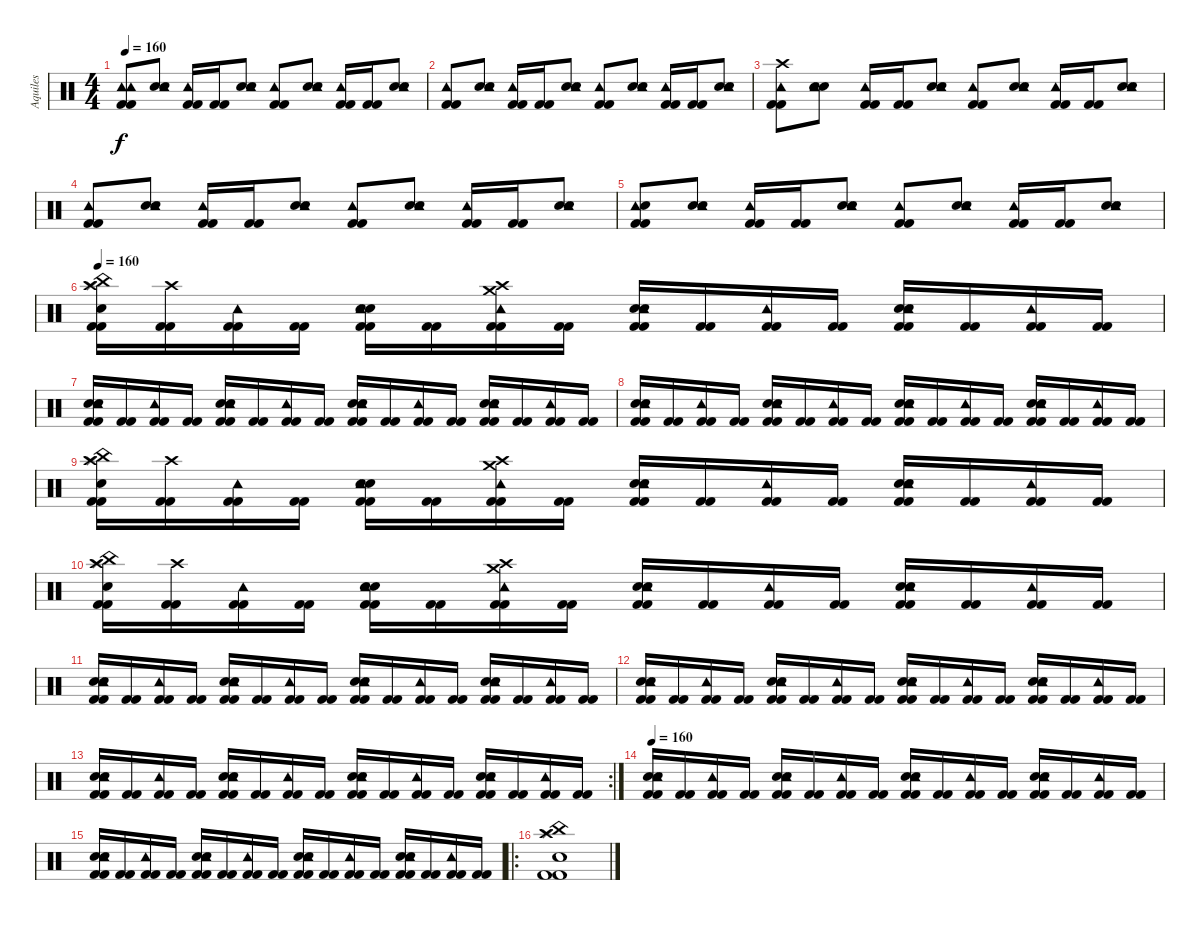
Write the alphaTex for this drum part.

\track ("Aquiles" "Aquiles") {instrument percussion}
\staff {score}
\articulation defaults
\ts (4 4)
\tempo 160
\clef neutral
\ks c
("Kick (hit) 2" "Kick (hit) 2" "Tambourine (hit)" "Tambourine (hit)").8{dy f} ("Electric Snare (hit)" "Electric Snare (hit)" "Tambourine (hit)").8 ("Kick (hit) 2" "Kick (hit) 2" "Tambourine (hit)").16 ("Kick (hit) 2" "Kick (hit) 2").16 ("Electric Snare (hit)" "Electric Snare (hit)" "Tambourine (hit)").8 ("Kick (hit) 2" "Kick (hit) 2" "Tambourine (hit)").8 ("Electric Snare (hit)" "Electric Snare (hit)" "Tambourine (hit)").8 ("Kick (hit) 2" "Kick (hit) 2" "Tambourine (hit)").16 ("Kick (hit) 2" "Kick (hit) 2").16 ("Electric Snare (hit)" "Electric Snare (hit)" "Tambourine (hit)").8 |
("Kick (hit) 2" "Kick (hit) 2" "Tambourine (hit)").8 ("Electric Snare (hit)" "Electric Snare (hit)" "Tambourine (hit)").8 ("Kick (hit) 2" "Kick (hit) 2" "Tambourine (hit)").16 ("Kick (hit) 2" "Kick (hit) 2").16 ("Electric Snare (hit)" "Electric Snare (hit)" "Tambourine (hit)").8 ("Kick (hit) 2" "Kick (hit) 2" "Tambourine (hit)").8 ("Electric Snare (hit)" "Electric Snare (hit)" "Tambourine (hit)").8 ("Kick (hit) 2" "Kick (hit) 2" "Tambourine (hit)").16 ("Kick (hit) 2" "Kick (hit) 2").16 ("Electric Snare (hit)" "Electric Snare (hit)" "Tambourine (hit)").8 |
("Kick (hit) 2" "Kick (hit) 2" "Tambourine (hit)" "Crash high (hit)").8 ("Electric Snare (hit)" "Electric Snare (hit)" "Tambourine (hit)").8 ("Kick (hit) 2" "Kick (hit) 2" "Tambourine (hit)").16 ("Kick (hit) 2" "Kick (hit) 2").16 ("Electric Snare (hit)" "Electric Snare (hit)" "Tambourine (hit)").8 ("Kick (hit) 2" "Kick (hit) 2" "Tambourine (hit)").8 ("Electric Snare (hit)" "Electric Snare (hit)" "Tambourine (hit)").8 ("Kick (hit) 2" "Kick (hit) 2" "Tambourine (hit)").16 ("Kick (hit) 2" "Kick (hit) 2").16 ("Electric Snare (hit)" "Electric Snare (hit)" "Tambourine (hit)").8 |
("Kick (hit) 2" "Kick (hit) 2" "Tambourine (hit)").8 ("Electric Snare (hit)" "Electric Snare (hit)" "Tambourine (hit)").8 ("Kick (hit) 2" "Kick (hit) 2" "Tambourine (hit)").16 ("Kick (hit) 2" "Kick (hit) 2").16 ("Electric Snare (hit)" "Electric Snare (hit)" "Tambourine (hit)").8 ("Kick (hit) 2" "Kick (hit) 2" "Tambourine (hit)").8 ("Electric Snare (hit)" "Electric Snare (hit)" "Tambourine (hit)").8 ("Kick (hit) 2" "Kick (hit) 2" "Tambourine (hit)").16 ("Kick (hit) 2" "Kick (hit) 2").16 ("Electric Snare (hit)" "Electric Snare (hit)" "Tambourine (hit)").8 |
("Kick (hit) 2" "Kick (hit) 2" "Tambourine (hit)" "Snare (hit)").8 ("Electric Snare (hit)" "Electric Snare (hit)" "Tambourine (hit)").8 ("Kick (hit) 2" "Kick (hit) 2" "Tambourine (hit)").16 ("Kick (hit) 2" "Kick (hit) 2").16 ("Electric Snare (hit)" "Electric Snare (hit)" "Tambourine (hit)").8 ("Kick (hit) 2" "Kick (hit) 2" "Tambourine (hit)").8 ("Electric Snare (hit)" "Electric Snare (hit)" "Tambourine (hit)").8 ("Kick (hit) 2" "Kick (hit) 2" "Tambourine (hit)").16 ("Kick (hit) 2" "Kick (hit) 2").16 ("Electric Snare (hit)" "Electric Snare (hit)" "Tambourine (hit)").8 |
\tempo 160
("Kick (hit) 2" "Kick (hit) 2" "Electric Snare (hit)" "Crash high (hit)" "Splash (hit)" "China (hit)").16 ("Kick (hit) 2" "Kick (hit) 2" "Crash high (hit)").16 ("Kick (hit) 2" "Kick (hit) 2" "Tambourine (hit)").16 ("Kick (hit) 2" "Kick (hit) 2").16 ("Kick (hit) 2" "Kick (hit) 2" "Electric Snare (hit)" "Electric Snare (hit)" "Tambourine (hit)").16 ("Kick (hit) 2" "Kick (hit) 2").16 ("Kick (hit) 2" "Kick (hit) 2" "Crash high (hit)" "Tambourine (hit)" "Crash medium (hit)").16 ("Kick (hit) 2" "Kick (hit) 2").16 ("Kick (hit) 2" "Kick (hit) 2" "Electric Snare (hit)" "Electric Snare (hit)" "Tambourine (hit)").16 ("Kick (hit) 2" "Kick (hit) 2").16 ("Kick (hit) 2" "Kick (hit) 2" "Tambourine (hit)").16 ("Kick (hit) 2" "Kick (hit) 2").16 ("Kick (hit) 2" "Kick (hit) 2" "Electric Snare (hit)" "Electric Snare (hit)" "Tambourine (hit)").16 ("Kick (hit) 2" "Kick (hit) 2").16 ("Kick (hit) 2" "Kick (hit) 2" "Tambourine (hit)").16 ("Kick (hit) 2" "Kick (hit) 2").16 |
("Kick (hit) 2" "Kick (hit) 2" "Electric Snare (hit)" "Electric Snare (hit)" "Tambourine (hit)").16 ("Kick (hit) 2" "Kick (hit) 2").16 ("Kick (hit) 2" "Kick (hit) 2" "Tambourine (hit)").16 ("Kick (hit) 2" "Kick (hit) 2").16 ("Kick (hit) 2" "Kick (hit) 2" "Electric Snare (hit)" "Electric Snare (hit)" "Tambourine (hit)").16 ("Kick (hit) 2" "Kick (hit) 2").16 ("Kick (hit) 2" "Kick (hit) 2" "Tambourine (hit)").16 ("Kick (hit) 2" "Kick (hit) 2").16 ("Kick (hit) 2" "Kick (hit) 2" "Electric Snare (hit)" "Electric Snare (hit)" "Tambourine (hit)").16 ("Kick (hit) 2" "Kick (hit) 2").16 ("Kick (hit) 2" "Kick (hit) 2" "Tambourine (hit)").16 ("Kick (hit) 2" "Kick (hit) 2").16 ("Kick (hit) 2" "Kick (hit) 2" "Electric Snare (hit)" "Electric Snare (hit)" "Tambourine (hit)").16 ("Kick (hit) 2" "Kick (hit) 2").16 ("Kick (hit) 2" "Kick (hit) 2" "Tambourine (hit)").16 ("Kick (hit) 2" "Kick (hit) 2").16 |
("Kick (hit) 2" "Kick (hit) 2" "Electric Snare (hit)" "Electric Snare (hit)" "Tambourine (hit)").16 ("Kick (hit) 2" "Kick (hit) 2").16 ("Kick (hit) 2" "Kick (hit) 2" "Tambourine (hit)").16 ("Kick (hit) 2" "Kick (hit) 2").16 ("Kick (hit) 2" "Kick (hit) 2" "Electric Snare (hit)" "Electric Snare (hit)" "Tambourine (hit)").16 ("Kick (hit) 2" "Kick (hit) 2").16 ("Kick (hit) 2" "Kick (hit) 2" "Tambourine (hit)").16 ("Kick (hit) 2" "Kick (hit) 2").16 ("Kick (hit) 2" "Kick (hit) 2" "Electric Snare (hit)" "Electric Snare (hit)" "Tambourine (hit)").16 ("Kick (hit) 2" "Kick (hit) 2").16 ("Kick (hit) 2" "Kick (hit) 2" "Tambourine (hit)").16 ("Kick (hit) 2" "Kick (hit) 2").16 ("Kick (hit) 2" "Kick (hit) 2" "Electric Snare (hit)" "Electric Snare (hit)" "Tambourine (hit)").16 ("Kick (hit) 2" "Kick (hit) 2").16 ("Kick (hit) 2" "Kick (hit) 2" "Tambourine (hit)").16 ("Kick (hit) 2" "Kick (hit) 2").16 |
("Kick (hit) 2" "Kick (hit) 2" "Electric Snare (hit)" "Crash high (hit)" "Splash (hit)" "China (hit)").16 ("Kick (hit) 2" "Kick (hit) 2" "Crash high (hit)").16 ("Kick (hit) 2" "Kick (hit) 2" "Tambourine (hit)").16 ("Kick (hit) 2" "Kick (hit) 2").16 ("Kick (hit) 2" "Kick (hit) 2" "Electric Snare (hit)" "Electric Snare (hit)" "Tambourine (hit)").16 ("Kick (hit) 2" "Kick (hit) 2").16 ("Kick (hit) 2" "Kick (hit) 2" "Crash high (hit)" "Tambourine (hit)" "Crash medium (hit)").16 ("Kick (hit) 2" "Kick (hit) 2").16 ("Kick (hit) 2" "Kick (hit) 2" "Electric Snare (hit)" "Electric Snare (hit)" "Tambourine (hit)").16 ("Kick (hit) 2" "Kick (hit) 2").16 ("Kick (hit) 2" "Kick (hit) 2" "Tambourine (hit)").16 ("Kick (hit) 2" "Kick (hit) 2").16 ("Kick (hit) 2" "Kick (hit) 2" "Electric Snare (hit)" "Electric Snare (hit)" "Tambourine (hit)").16 ("Kick (hit) 2" "Kick (hit) 2").16 ("Kick (hit) 2" "Kick (hit) 2" "Tambourine (hit)").16 ("Kick (hit) 2" "Kick (hit) 2").16 |
("Kick (hit) 2" "Kick (hit) 2" "Electric Snare (hit)" "Crash high (hit)" "Splash (hit)" "China (hit)").16 ("Kick (hit) 2" "Kick (hit) 2" "Crash high (hit)").16 ("Kick (hit) 2" "Kick (hit) 2" "Tambourine (hit)").16 ("Kick (hit) 2" "Kick (hit) 2").16 ("Kick (hit) 2" "Kick (hit) 2" "Electric Snare (hit)" "Electric Snare (hit)" "Tambourine (hit)").16 ("Kick (hit) 2" "Kick (hit) 2").16 ("Kick (hit) 2" "Kick (hit) 2" "Crash high (hit)" "Tambourine (hit)" "Crash medium (hit)").16 ("Kick (hit) 2" "Kick (hit) 2").16 ("Kick (hit) 2" "Kick (hit) 2" "Electric Snare (hit)" "Electric Snare (hit)" "Tambourine (hit)").16 ("Kick (hit) 2" "Kick (hit) 2").16 ("Kick (hit) 2" "Kick (hit) 2" "Tambourine (hit)").16 ("Kick (hit) 2" "Kick (hit) 2").16 ("Kick (hit) 2" "Kick (hit) 2" "Electric Snare (hit)" "Electric Snare (hit)" "Tambourine (hit)").16 ("Kick (hit) 2" "Kick (hit) 2").16 ("Kick (hit) 2" "Kick (hit) 2" "Tambourine (hit)").16 ("Kick (hit) 2" "Kick (hit) 2").16 |
("Kick (hit) 2" "Kick (hit) 2" "Electric Snare (hit)" "Electric Snare (hit)" "Tambourine (hit)").16 ("Kick (hit) 2" "Kick (hit) 2").16 ("Kick (hit) 2" "Kick (hit) 2" "Tambourine (hit)").16 ("Kick (hit) 2" "Kick (hit) 2").16 ("Kick (hit) 2" "Kick (hit) 2" "Electric Snare (hit)" "Electric Snare (hit)" "Tambourine (hit)").16 ("Kick (hit) 2" "Kick (hit) 2").16 ("Kick (hit) 2" "Kick (hit) 2" "Tambourine (hit)").16 ("Kick (hit) 2" "Kick (hit) 2").16 ("Kick (hit) 2" "Kick (hit) 2" "Electric Snare (hit)" "Electric Snare (hit)" "Tambourine (hit)").16 ("Kick (hit) 2" "Kick (hit) 2").16 ("Kick (hit) 2" "Kick (hit) 2" "Tambourine (hit)").16 ("Kick (hit) 2" "Kick (hit) 2").16 ("Kick (hit) 2" "Kick (hit) 2" "Electric Snare (hit)" "Electric Snare (hit)" "Tambourine (hit)").16 ("Kick (hit) 2" "Kick (hit) 2").16 ("Kick (hit) 2" "Kick (hit) 2" "Tambourine (hit)").16 ("Kick (hit) 2" "Kick (hit) 2").16 |
("Kick (hit) 2" "Kick (hit) 2" "Electric Snare (hit)" "Electric Snare (hit)" "Tambourine (hit)").16 ("Kick (hit) 2" "Kick (hit) 2").16 ("Kick (hit) 2" "Kick (hit) 2" "Tambourine (hit)").16 ("Kick (hit) 2" "Kick (hit) 2").16 ("Kick (hit) 2" "Kick (hit) 2" "Electric Snare (hit)" "Electric Snare (hit)" "Tambourine (hit)").16 ("Kick (hit) 2" "Kick (hit) 2").16 ("Kick (hit) 2" "Kick (hit) 2" "Tambourine (hit)").16 ("Kick (hit) 2" "Kick (hit) 2").16 ("Kick (hit) 2" "Kick (hit) 2" "Electric Snare (hit)" "Electric Snare (hit)" "Tambourine (hit)").16 ("Kick (hit) 2" "Kick (hit) 2").16 ("Kick (hit) 2" "Kick (hit) 2" "Tambourine (hit)").16 ("Kick (hit) 2" "Kick (hit) 2").16 ("Kick (hit) 2" "Kick (hit) 2" "Electric Snare (hit)" "Electric Snare (hit)" "Tambourine (hit)").16 ("Kick (hit) 2" "Kick (hit) 2").16 ("Kick (hit) 2" "Kick (hit) 2" "Tambourine (hit)").16 ("Kick (hit) 2" "Kick (hit) 2").16 |
\rc 2
("Kick (hit) 2" "Kick (hit) 2" "Electric Snare (hit)" "Electric Snare (hit)" "Tambourine (hit)").16 ("Kick (hit) 2" "Kick (hit) 2").16 ("Kick (hit) 2" "Kick (hit) 2" "Tambourine (hit)").16 ("Kick (hit) 2" "Kick (hit) 2").16 ("Kick (hit) 2" "Kick (hit) 2" "Electric Snare (hit)" "Electric Snare (hit)" "Tambourine (hit)").16 ("Kick (hit) 2" "Kick (hit) 2").16 ("Kick (hit) 2" "Kick (hit) 2" "Tambourine (hit)").16 ("Kick (hit) 2" "Kick (hit) 2").16 ("Kick (hit) 2" "Kick (hit) 2" "Electric Snare (hit)" "Electric Snare (hit)" "Tambourine (hit)").16 ("Kick (hit) 2" "Kick (hit) 2").16 ("Kick (hit) 2" "Kick (hit) 2" "Tambourine (hit)").16 ("Kick (hit) 2" "Kick (hit) 2").16 ("Kick (hit) 2" "Kick (hit) 2" "Electric Snare (hit)" "Electric Snare (hit)" "Tambourine (hit)").16 ("Kick (hit) 2" "Kick (hit) 2").16 ("Kick (hit) 2" "Kick (hit) 2" "Tambourine (hit)").16 ("Kick (hit) 2" "Kick (hit) 2").16 |
\tempo 160
("Kick (hit) 2" "Kick (hit) 2" "Electric Snare (hit)" "Electric Snare (hit)" "Tambourine (hit)").16 ("Kick (hit) 2" "Kick (hit) 2").16 ("Kick (hit) 2" "Kick (hit) 2" "Tambourine (hit)").16 ("Kick (hit) 2" "Kick (hit) 2").16 ("Kick (hit) 2" "Kick (hit) 2" "Electric Snare (hit)" "Electric Snare (hit)" "Tambourine (hit)").16 ("Kick (hit) 2" "Kick (hit) 2").16 ("Kick (hit) 2" "Kick (hit) 2" "Tambourine (hit)").16 ("Kick (hit) 2" "Kick (hit) 2").16 ("Kick (hit) 2" "Kick (hit) 2" "Electric Snare (hit)" "Electric Snare (hit)" "Tambourine (hit)").16 ("Kick (hit) 2" "Kick (hit) 2").16 ("Kick (hit) 2" "Kick (hit) 2" "Tambourine (hit)").16 ("Kick (hit) 2" "Kick (hit) 2").16 ("Kick (hit) 2" "Kick (hit) 2" "Electric Snare (hit)" "Electric Snare (hit)" "Tambourine (hit)").16 ("Kick (hit) 2" "Kick (hit) 2").16 ("Kick (hit) 2" "Kick (hit) 2" "Tambourine (hit)").16 ("Kick (hit) 2" "Kick (hit) 2").16 |
("Kick (hit) 2" "Kick (hit) 2" "Electric Snare (hit)" "Electric Snare (hit)" "Tambourine (hit)").16 ("Kick (hit) 2" "Kick (hit) 2").16 ("Kick (hit) 2" "Kick (hit) 2" "Tambourine (hit)").16 ("Kick (hit) 2" "Kick (hit) 2").16 ("Kick (hit) 2" "Kick (hit) 2" "Electric Snare (hit)" "Electric Snare (hit)" "Tambourine (hit)").16 ("Kick (hit) 2" "Kick (hit) 2").16 ("Kick (hit) 2" "Kick (hit) 2" "Tambourine (hit)").16 ("Kick (hit) 2" "Kick (hit) 2").16 ("Kick (hit) 2" "Kick (hit) 2" "Electric Snare (hit)" "Electric Snare (hit)" "Tambourine (hit)").16 ("Kick (hit) 2" "Kick (hit) 2").16 ("Kick (hit) 2" "Kick (hit) 2" "Tambourine (hit)").16 ("Kick (hit) 2" "Kick (hit) 2").16 ("Kick (hit) 2" "Kick (hit) 2" "Electric Snare (hit)" "Electric Snare (hit)" "Tambourine (hit)").16 ("Kick (hit) 2" "Kick (hit) 2").16 ("Kick (hit) 2" "Kick (hit) 2" "Tambourine (hit)").16 ("Kick (hit) 2" "Kick (hit) 2").16 |
\ro
("Kick (hit) 2" "Kick (hit) 2" "Crash high (hit)" "Splash (hit)" "China (hit)" "Electric Snare (hit)").1
